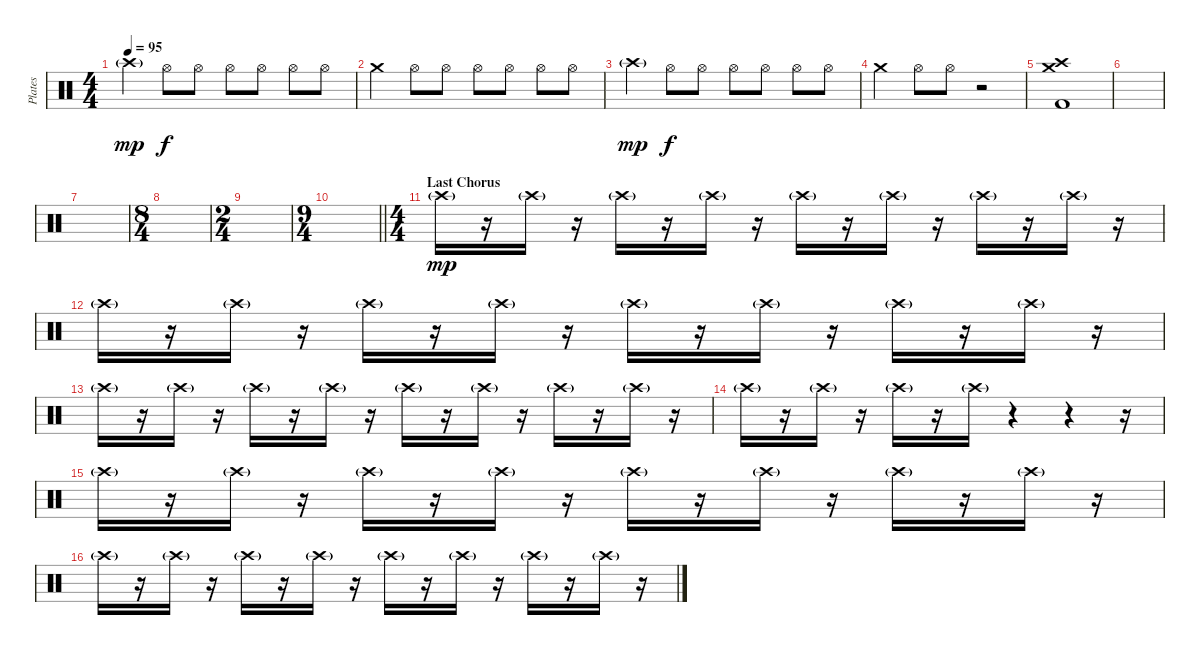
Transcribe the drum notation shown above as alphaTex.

\track ("Plates" "Plates") {instrument percussion}
\staff {score}
\articulation defaults
\ts (4 4)
\tempo 95
\clef neutral
\ks c "Crash high (hit)"{g}.4{dy mp} "Hi-Hat (open)".8{dy f} "Hi-Hat (open)".8 "Hi-Hat (open)".8 "Hi-Hat (open)".8 "Hi-Hat (open)".8 "Hi-Hat (open)".8
|
"Crash medium (hit)".4 "Hi-Hat (open)".8 "Hi-Hat (open)".8 "Hi-Hat (open)".8 "Hi-Hat (open)".8 "Hi-Hat (open)".8 "Hi-Hat (open)".8 |
"Crash high (hit)"{g}.4{dy mp} "Hi-Hat (open)".8{dy f} "Hi-Hat (open)".8 "Hi-Hat (open)".8 "Hi-Hat (open)".8 "Hi-Hat (open)".8 "Hi-Hat (open)".8 |
"Crash medium (hit)".4 "Hi-Hat (open)".8 "Hi-Hat (open)".8 r.2 |
("Crash high (hit)" "Kick (hit) 2" "Crash medium (hit)").1 |
|
|
\ts (8 4)
|
\ts (2 4)
|
\ts (9 4)
\barLineRight lightlight
|
\ts (4 4)
\section ("" "Last Chorus")
"Crash high (hit)"{g}.16{dy mp} r.16 "Crash high (hit)"{g}.16 r.16 "Crash high (hit)"{g}.16 r.16 "Crash high (hit)"{g}.16 r.16 "Crash high (hit)"{g}.16 r.16 "Crash high (hit)"{g}.16 r.16 "Crash high (hit)"{g}.16 r.16 "Crash high (hit)"{g}.16 r.16 |
"Crash high (hit)"{g}.16 r.16 "Crash high (hit)"{g}.16 r.16 "Crash high (hit)"{g}.16 r.16 "Crash high (hit)"{g}.16 r.16 "Crash high (hit)"{g}.16 r.16 "Crash high (hit)"{g}.16 r.16 "Crash high (hit)"{g}.16 r.16 "Crash high (hit)"{g}.16 r.16 |
"Crash high (hit)"{g}.16 r.16 "Crash high (hit)"{g}.16 r.16 "Crash high (hit)"{g}.16 r.16 "Crash high (hit)"{g}.16 r.16 "Crash high (hit)"{g}.16 r.16 "Crash high (hit)"{g}.16 r.16 "Crash high (hit)"{g}.16 r.16 "Crash high (hit)"{g}.16 r.16 |
"Crash high (hit)"{g}.16 r.16 "Crash high (hit)"{g}.16 r.16 "Crash high (hit)"{g}.16 r.16 "Crash high (hit)"{g}.16 r.4 r.4 r.16 |
"Crash high (hit)"{g}.16 r.16 "Crash high (hit)"{g}.16 r.16 "Crash high (hit)"{g}.16 r.16 "Crash high (hit)"{g}.16 r.16 "Crash high (hit)"{g}.16 r.16 "Crash high (hit)"{g}.16 r.16 "Crash high (hit)"{g}.16 r.16 "Crash high (hit)"{g}.16 r.16 |
"Crash high (hit)"{g}.16 r.16 "Crash high (hit)"{g}.16 r.16 "Crash high (hit)"{g}.16 r.16 "Crash high (hit)"{g}.16 r.16 "Crash high (hit)"{g}.16 r.16 "Crash high (hit)"{g}.16 r.16 "Crash high (hit)"{g}.16 r.16 "Crash high (hit)"{g}.16 r.16
